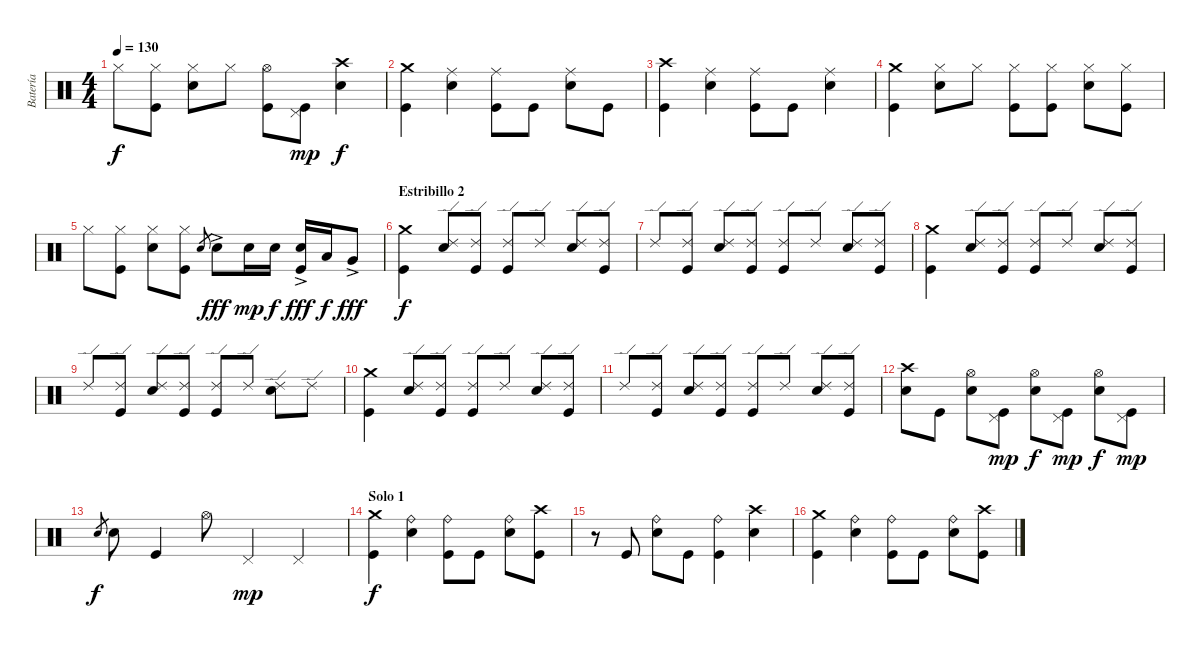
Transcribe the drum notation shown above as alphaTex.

\track ("Batería" "Batería") {instrument percussion}
\staff {score}
\articulation defaults
\ts (4 4)
\tempo 130
\clef neutral
\ks c "Hi-Hat (closed)".8{dy f}
("Kick (hit)" "Hi-Hat (closed)").8 ("Electric Snare (hit)" "Hi-Hat (closed)").8 "Hi-Hat (closed)".8 ("Kick (hit)" "Hi-Hat (open)").8 ("Kick (hit)" "Pedal Hi-Hat (hit)").8{dy mp} ("Electric Snare (hit)" "Crash high (hit)").4{dy f} |
("Kick (hit)" "Crash medium (hit)").4 ("Electric Snare (hit)" "Ride (middle)").4 ("Kick (hit)" "Ride (middle)").8 "Kick (hit)".8 ("Electric Snare (hit)" "Ride (middle)").8 "Kick (hit)".8 |
("Kick (hit)" "Crash high (hit)").4 ("Electric Snare (hit)" "Ride (middle)").4 ("Kick (hit)" "Ride (middle)").8 "Kick (hit)".8 ("Electric Snare (hit)" "Ride (middle)").4 |
("Kick (hit)" "Crash medium (hit)").4 ("Electric Snare (hit)" "Hi-Hat (closed)").8 "Hi-Hat (closed)".8 ("Kick (hit)" "Hi-Hat (closed)").8 ("Kick (hit)" "Hi-Hat (closed)").8 ("Electric Snare (hit)" "Hi-Hat (closed)").8 ("Kick (hit)" "Hi-Hat (closed)").8 |
"Hi-Hat (closed)".8 ("Kick (hit)" "Hi-Hat (closed)").8 ("Electric Snare (hit)" "Hi-Hat (closed)").8 ("Kick (hit)" "Hi-Hat (closed)").8 "Electric Snare (hit)".8{gr} "Electric Snare (hit)"{ac}.8{dy fff} "Electric Snare (hit)".16{dy mp} "Electric Snare (hit)".16{dy f} ("Kick (hit)" "Electric Snare (hit)"{ac}).16{dy fff} "Low Tom (hit)".16{dy f} "Very Low Tom (hit)"{ac}.8{dy fff} |
\section ("" "Estribillo 2")
("Kick (hit)" "Crash medium (hit)").4{dy f} ("Electric Snare (hit)" "Ride (edge) 2").8 ("Kick (hit)" "Ride (edge) 2").8 ("Kick (hit)" "Ride (edge) 2").8 "Ride (edge) 2".8 ("Electric Snare (hit)" "Ride (edge) 2").8 ("Kick (hit)" "Ride (edge) 2").8 |
"Ride (edge) 2".8 ("Kick (hit)" "Ride (edge) 2").8 ("Electric Snare (hit)" "Ride (edge) 2").8 ("Kick (hit)" "Ride (edge) 2").8 ("Kick (hit)" "Ride (edge) 2").8 "Ride (edge) 2".8 ("Electric Snare (hit)" "Ride (edge) 2").8 ("Kick (hit)" "Ride (edge) 2").8 |
("Kick (hit)" "Crash medium (hit)").4 ("Electric Snare (hit)" "Ride (edge) 2").8 ("Kick (hit)" "Ride (edge) 2").8 ("Kick (hit)" "Ride (edge) 2").8 "Ride (edge) 2".8 ("Electric Snare (hit)" "Ride (edge) 2").8 ("Kick (hit)" "Ride (edge) 2").8 |
"Ride (edge) 2".8 ("Kick (hit)" "Ride (edge) 2").8 ("Electric Snare (hit)" "Ride (edge) 2").8 ("Kick (hit)" "Ride (edge) 2").8 ("Kick (hit)" "Ride (edge) 2").8 "Ride (edge) 2".8 ("Electric Snare (hit)" "Ride (edge) 2").8 "Ride (edge) 2".8 |
("Kick (hit)" "Crash medium (hit)").4 ("Electric Snare (hit)" "Ride (edge) 2").8 ("Kick (hit)" "Ride (edge) 2").8 ("Kick (hit)" "Ride (edge) 2").8 "Ride (edge) 2".8 ("Electric Snare (hit)" "Ride (edge) 2").8 ("Kick (hit)" "Ride (edge) 2").8 |
"Ride (edge) 2".8 ("Kick (hit)" "Ride (edge) 2").8 ("Electric Snare (hit)" "Ride (edge) 2").8 ("Kick (hit)" "Ride (edge) 2").8 ("Kick (hit)" "Ride (edge) 2").8 "Ride (edge) 2".8 ("Electric Snare (hit)" "Ride (edge) 2").8 ("Kick (hit)" "Ride (edge) 2").8 |
("Electric Snare (hit)" "Crash high (hit)").8 "Kick (hit)".8 ("Electric Snare (hit)" "Hi-Hat (open)").8 ("Kick (hit)" "Pedal Hi-Hat (hit)").8{dy mp} ("Electric Snare (hit)" "Hi-Hat (open)").8{dy f} ("Kick (hit)" "Pedal Hi-Hat (hit)").8{dy mp} ("Electric Snare (hit)" "Hi-Hat (open)").8{dy f} ("Kick (hit)" "Pedal Hi-Hat (hit)").8{dy mp} |
"Electric Snare (hit)".8{gr dy f} "Electric Snare (hit)".8 "Kick (hit)".4 "Hi-Hat (open)".8 "Pedal Hi-Hat (hit)".4{dy mp} "Pedal Hi-Hat (hit)".4 |
\section ("" "Solo 1")
("Kick (hit)" "Crash medium (hit)").4{dy f} ("Electric Snare (hit)" "Ride (bell)").4 ("Kick (hit)" "Ride (bell)").8 "Kick (hit)".8 ("Electric Snare (hit)" "Ride (bell)").8 ("Kick (hit)" "Crash high (hit)").8 |
r.8 "Kick (hit)".8 ("Electric Snare (hit)" "Ride (bell)").8 "Kick (hit)".8 ("Kick (hit)" "Ride (bell)").4 ("Electric Snare (hit)" "Crash high (hit)").4 |
("Kick (hit)" "Crash medium (hit)").4 ("Electric Snare (hit)" "Ride (bell)").4 ("Kick (hit)" "Ride (bell)").8 "Kick (hit)".8 ("Electric Snare (hit)" "Ride (bell)").8 ("Kick (hit)" "Crash high (hit)").8
